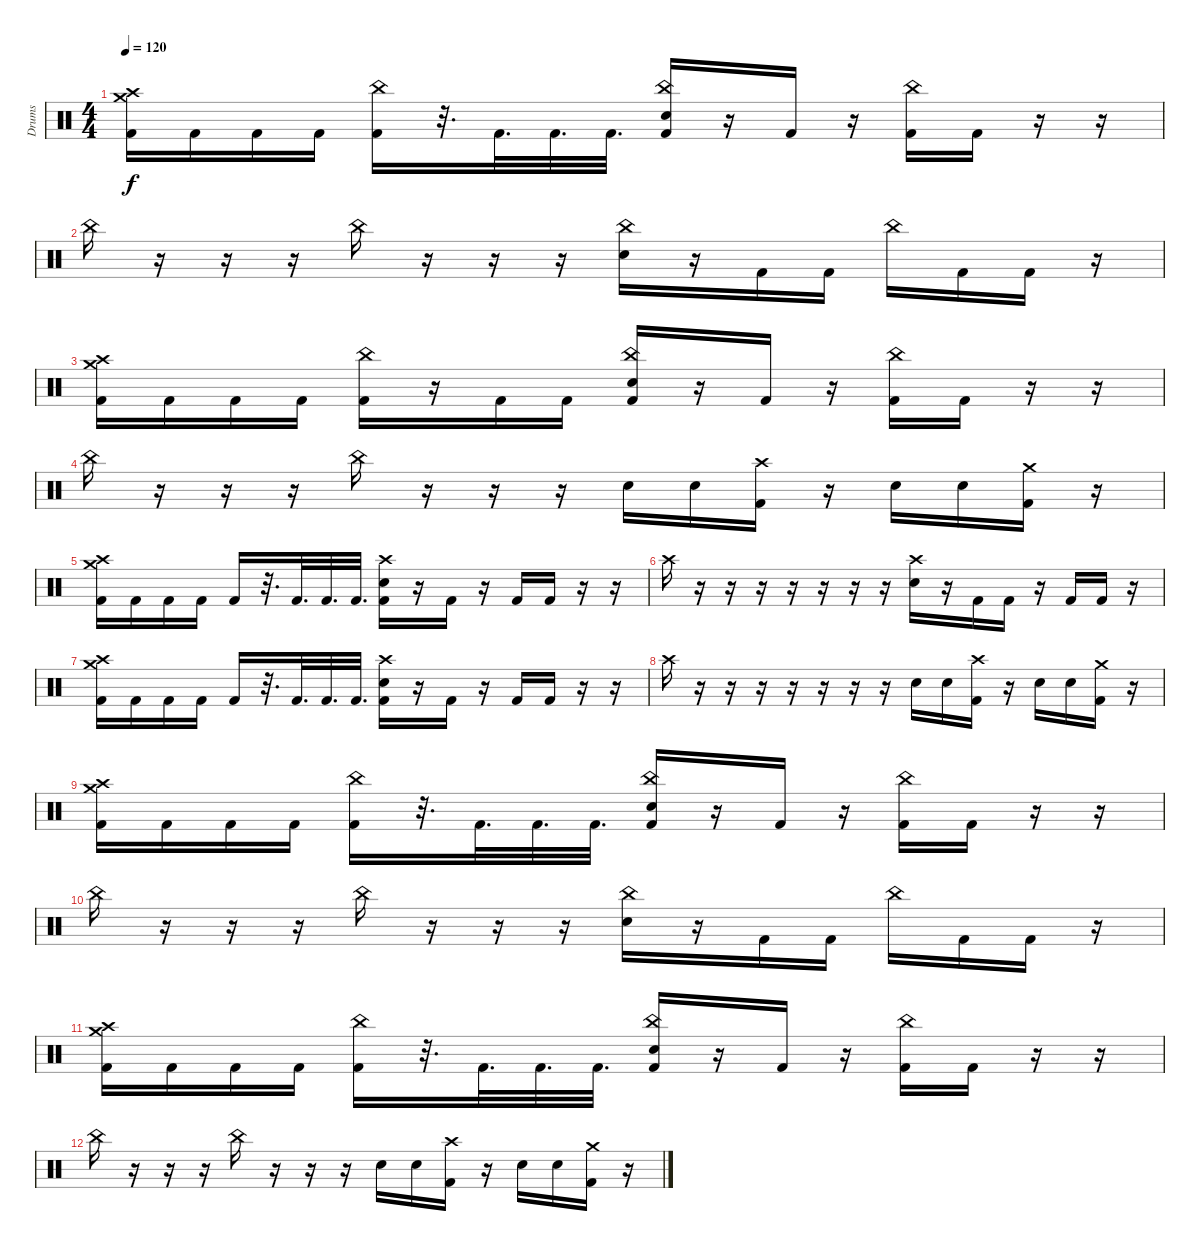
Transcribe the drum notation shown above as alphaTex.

\track ("Drums" "Drums") {instrument percussion}
\staff {score}
\articulation defaults
\ts (4 4)
\tempo 120
\clef neutral
\ks c
("Crash medium (hit)" "Crash high (hit)" "Kick (hit) 2").16{dy f} "Kick (hit) 2".16 "Kick (hit) 2".16 "Kick (hit) 2".16 ("China (hit)" "Kick (hit) 2").16 r.32{d} "Kick (hit) 2".32{d} "Kick (hit) 2".32{d} "Kick (hit) 2".32{d} ("China (hit)" "Electric Snare (hit)" "Kick (hit) 2").16 r.16 "Kick (hit) 2".16 r.16 ("China (hit)" "Kick (hit) 2").16 "Kick (hit) 2".16 r.16 r.16 |
"China (hit)".16 r.16 r.16 r.16 "China (hit)".16 r.16 r.16 r.16 ("China (hit)" "Electric Snare (hit)").16 r.16 "Kick (hit) 2".16 "Kick (hit) 2".16 "China (hit)".16 "Kick (hit) 2".16 "Kick (hit) 2".16 r.16 |
("Crash medium (hit)" "Crash high (hit)" "Kick (hit) 2").16 "Kick (hit) 2".16 "Kick (hit) 2".16 "Kick (hit) 2".16 ("China (hit)" "Kick (hit) 2").16 r.16 "Kick (hit) 2".16 "Kick (hit) 2".16 ("China (hit)" "Electric Snare (hit)" "Kick (hit) 2").16 r.16 "Kick (hit) 2".16 r.16 ("China (hit)" "Kick (hit) 2").16 "Kick (hit) 2".16 r.16 r.16 |
"China (hit)".16 r.16 r.16 r.16 "China (hit)".16 r.16 r.16 r.16 "Electric Snare (hit)".16 "Electric Snare (hit)".16 ("Crash high (hit)" "Kick (hit) 2").16 r.16 "Electric Snare (hit)".16 "Electric Snare (hit)".16 ("Crash medium (hit)" "Kick (hit) 2").16 r.16 |
("Crash medium (hit)" "Crash high (hit)" "Kick (hit) 2").16 "Kick (hit) 2".16 "Kick (hit) 2".16 "Kick (hit) 2".16 "Kick (hit) 2".16 r.32{d} "Kick (hit) 2".32{d} "Kick (hit) 2".32{d} "Kick (hit) 2".32{d} ("Crash high (hit)" "Electric Snare (hit)" "Kick (hit) 2").16 r.16 "Kick (hit) 2".16 r.16 "Kick (hit) 2".16 "Kick (hit) 2".16 r.16 r.16 |
"Crash high (hit)".16 r.16 r.16 r.16 r.16 r.16 r.16 r.16 ("Crash high (hit)" "Electric Snare (hit)").16 r.16 "Kick (hit) 2".16 "Kick (hit) 2".16 r.16 "Kick (hit) 2".16 "Kick (hit) 2".16 r.16 |
("Crash medium (hit)" "Crash high (hit)" "Kick (hit) 2").16 "Kick (hit) 2".16 "Kick (hit) 2".16 "Kick (hit) 2".16 "Kick (hit) 2".16 r.32{d} "Kick (hit) 2".32{d} "Kick (hit) 2".32{d} "Kick (hit) 2".32{d} ("Crash high (hit)" "Electric Snare (hit)" "Kick (hit) 2").16 r.16 "Kick (hit) 2".16 r.16 "Kick (hit) 2".16 "Kick (hit) 2".16 r.16 r.16 |
"Crash high (hit)".16 r.16 r.16 r.16 r.16 r.16 r.16 r.16 "Electric Snare (hit)".16 "Electric Snare (hit)".16 ("Crash high (hit)" "Kick (hit) 2").16 r.16 "Electric Snare (hit)".16 "Electric Snare (hit)".16 ("Crash medium (hit)" "Kick (hit) 2").16 r.16 |
("Crash medium (hit)" "Crash high (hit)" "Kick (hit) 2").16 "Kick (hit) 2".16 "Kick (hit) 2".16 "Kick (hit) 2".16 ("China (hit)" "Kick (hit) 2").16 r.32{d} "Kick (hit) 2".32{d} "Kick (hit) 2".32{d} "Kick (hit) 2".32{d} ("China (hit)" "Electric Snare (hit)" "Kick (hit) 2").16 r.16 "Kick (hit) 2".16 r.16 ("China (hit)" "Kick (hit) 2").16 "Kick (hit) 2".16 r.16 r.16 |
"China (hit)".16 r.16 r.16 r.16 "China (hit)".16 r.16 r.16 r.16 ("China (hit)" "Electric Snare (hit)").16 r.16 "Kick (hit) 2".16 "Kick (hit) 2".16 "China (hit)".16 "Kick (hit) 2".16 "Kick (hit) 2".16 r.16 |
("Crash medium (hit)" "Crash high (hit)" "Kick (hit) 2").16 "Kick (hit) 2".16 "Kick (hit) 2".16 "Kick (hit) 2".16 ("China (hit)" "Kick (hit) 2").16 r.32{d} "Kick (hit) 2".32{d} "Kick (hit) 2".32{d} "Kick (hit) 2".32{d} ("China (hit)" "Electric Snare (hit)" "Kick (hit) 2").16 r.16 "Kick (hit) 2".16 r.16 ("China (hit)" "Kick (hit) 2").16 "Kick (hit) 2".16 r.16 r.16 |
"China (hit)".16 r.16 r.16 r.16 "China (hit)".16 r.16 r.16 r.16 "Electric Snare (hit)".16 "Electric Snare (hit)".16 ("Crash high (hit)" "Kick (hit) 2").16 r.16 "Electric Snare (hit)".16 "Electric Snare (hit)".16 ("Crash medium (hit)" "Kick (hit) 2").16 r.16
